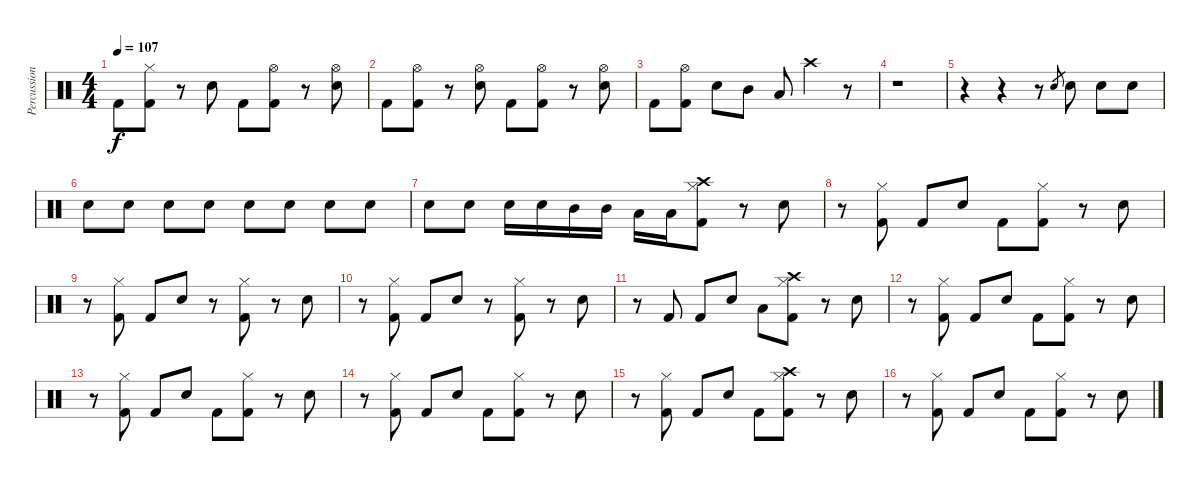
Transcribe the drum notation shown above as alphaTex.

\track ("Percussion" "Percussion") {instrument percussion}
\staff {score}
\articulation defaults
\ts (4 4)
\tempo 107
\clef neutral
\ks c "Kick (hit) 2".8{dy f}
("Hi-Hat (closed)" "Kick (hit) 2").8 r.8 "Electric Snare (hit)".8 "Kick (hit) 2".8 ("Hi-Hat (open)" "Kick (hit) 2").8 r.8 ("Hi-Hat (open)" "Electric Snare (hit)").8 |
"Kick (hit) 2".8 ("Hi-Hat (open)" "Kick (hit) 2").8 r.8 ("Hi-Hat (open)" "Electric Snare (hit)").8 "Kick (hit) 2".8 ("Hi-Hat (open)" "Kick (hit) 2").8 r.8 ("Hi-Hat (open)" "Electric Snare (hit)").8 |
"Kick (hit) 2".8 ("Hi-Hat (open)" "Kick (hit) 2").8 "Electric Snare (hit)".8 "Mid Tom (hit)".8 "Low Tom (hit)".8 "Crash high (hit)".4 r.8 |
r.1 |
r.4 r.4 r.8 "Electric Snare (hit)".8{gr} "Electric Snare (hit)".8 "Electric Snare (hit)".8 "Electric Snare (hit)".8 |
"Electric Snare (hit)".8 "Electric Snare (hit)".8 "Electric Snare (hit)".8 "Electric Snare (hit)".8 "Electric Snare (hit)".8 "Electric Snare (hit)".8 "Electric Snare (hit)".8 "Electric Snare (hit)".8 |
"Electric Snare (hit)".8 "Electric Snare (hit)".8 "Electric Snare (hit)".16 "Electric Snare (hit)".16 "Mid Tom (hit)".16 "Mid Tom (hit)".16 "Low Tom (hit)".16 "Low Tom (hit)".16 ("Crash high (hit)" "Hi-Hat (closed)" "Kick (hit) 2").8 r.8 "Electric Snare (hit)".8 |
r.8 ("Hi-Hat (closed)" "Kick (hit) 2").8 "Kick (hit) 2".8 "Electric Snare (hit)".8 "Kick (hit) 2".8 ("Hi-Hat (closed)" "Kick (hit) 2").8 r.8 "Electric Snare (hit)".8 |
r.8 ("Hi-Hat (closed)" "Kick (hit) 2").8 "Kick (hit) 2".8 "Electric Snare (hit)".8 r.8 ("Hi-Hat (closed)" "Kick (hit) 2").8 r.8 "Electric Snare (hit)".8 |
r.8 ("Hi-Hat (closed)" "Kick (hit) 2").8 "Kick (hit) 2".8 "Electric Snare (hit)".8 r.8 ("Hi-Hat (closed)" "Kick (hit) 2").8 r.8 "Electric Snare (hit)".8 |
r.8 "Kick (hit) 2".8 "Kick (hit) 2".8 "Electric Snare (hit)".8 "Low Tom (hit)".8 ("Crash high (hit)" "Hi-Hat (closed)" "Kick (hit) 2").8 r.8 "Electric Snare (hit)".8 |
r.8 ("Hi-Hat (closed)" "Kick (hit) 2").8 "Kick (hit) 2".8 "Electric Snare (hit)".8 "Kick (hit) 2".8 ("Hi-Hat (closed)" "Kick (hit) 2").8 r.8 "Electric Snare (hit)".8 |
r.8 ("Hi-Hat (closed)" "Kick (hit) 2").8 "Kick (hit) 2".8 "Electric Snare (hit)".8 "Kick (hit) 2".8 ("Hi-Hat (closed)" "Kick (hit) 2").8 r.8 "Electric Snare (hit)".8 |
r.8 ("Hi-Hat (closed)" "Kick (hit) 2").8 "Kick (hit) 2".8 "Electric Snare (hit)".8 "Kick (hit) 2".8 ("Hi-Hat (closed)" "Kick (hit) 2").8 r.8 "Electric Snare (hit)".8 |
r.8 ("Hi-Hat (closed)" "Kick (hit) 2").8 "Kick (hit) 2".8 "Electric Snare (hit)".8 "Kick (hit) 2".8 ("Crash high (hit)" "Hi-Hat (closed)" "Kick (hit) 2").8 r.8 "Electric Snare (hit)".8 |
r.8 ("Hi-Hat (closed)" "Kick (hit) 2").8 "Kick (hit) 2".8 "Electric Snare (hit)".8 "Kick (hit) 2".8 ("Hi-Hat (closed)" "Kick (hit) 2").8 r.8 "Electric Snare (hit)".8
